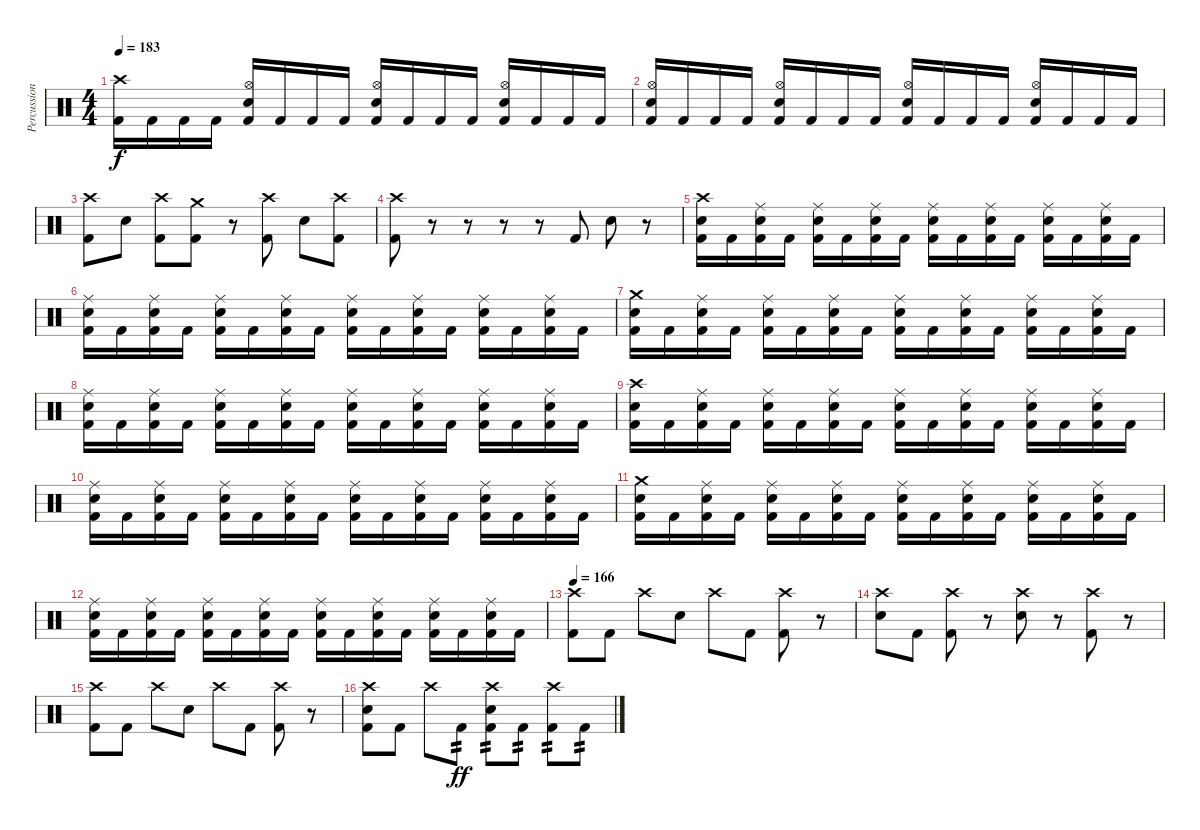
\track ("Percussion" "Percussion") {instrument percussion}
\staff {score}
\articulation defaults
\ts (4 4)
\tempo 183
\clef neutral
\ks c
("Crash high (hit)" "Kick (hit) 2").16{dy f} "Kick (hit) 2".16 "Kick (hit) 2".16 "Kick (hit) 2".16 ("Hi-Hat (open)" "Snare (hit) 2" "Kick (hit) 2").16 "Kick (hit) 2".16 "Kick (hit) 2".16 "Kick (hit) 2".16 ("Hi-Hat (open)" "Snare (hit) 2" "Kick (hit) 2").16 "Kick (hit) 2".16 "Kick (hit) 2".16 "Kick (hit) 2".16 ("Hi-Hat (open)" "Snare (hit) 2" "Kick (hit) 2").16 "Kick (hit) 2".16 "Kick (hit) 2".16 "Kick (hit) 2".16 |
("Hi-Hat (open)" "Snare (hit) 2" "Kick (hit) 2").16 "Kick (hit) 2".16 "Kick (hit) 2".16 "Kick (hit) 2".16 ("Hi-Hat (open)" "Snare (hit) 2" "Kick (hit) 2").16 "Kick (hit) 2".16 "Kick (hit) 2".16 "Kick (hit) 2".16 ("Hi-Hat (open)" "Snare (hit) 2" "Kick (hit) 2").16 "Kick (hit) 2".16 "Kick (hit) 2".16 "Kick (hit) 2".16 ("Hi-Hat (open)" "Snare (hit) 2" "Kick (hit) 2").16 "Kick (hit) 2".16 "Kick (hit) 2".16 "Kick (hit) 2".16 |
("Crash high (hit)" "Kick (hit) 2").8 "Snare (hit) 2".8 ("Crash high (hit)" "Kick (hit) 2").8 ("Crash medium (hit)" "Kick (hit) 2").8 r.8 ("Crash high (hit)" "Kick (hit) 2").8 "Snare (hit) 2".8 ("Crash high (hit)" "Kick (hit) 2").8 |
("Crash high (hit)" "Kick (hit) 2").8 r.8 r.8 r.8 r.8 "Kick (hit) 2".8 "Snare (hit) 2".8 r.8 |
("Crash high (hit)" "Snare (hit) 2" "Kick (hit) 2").16 "Kick (hit) 2".16 ("Ride (middle)" "Snare (hit) 2" "Kick (hit) 2").16 "Kick (hit) 2".16 ("Ride (middle)" "Snare (hit) 2" "Kick (hit) 2").16 "Kick (hit) 2".16 ("Ride (middle)" "Snare (hit) 2" "Kick (hit) 2").16 "Kick (hit) 2".16 ("Ride (middle)" "Snare (hit) 2" "Kick (hit) 2").16 "Kick (hit) 2".16 ("Ride (middle)" "Snare (hit) 2" "Kick (hit) 2").16 "Kick (hit) 2".16 ("Ride (middle)" "Snare (hit) 2" "Kick (hit) 2").16 "Kick (hit) 2".16 ("Ride (middle)" "Snare (hit) 2" "Kick (hit) 2").16 "Kick (hit) 2".16 |
("Ride (middle)" "Snare (hit) 2" "Kick (hit) 2").16 "Kick (hit) 2".16 ("Ride (middle)" "Snare (hit) 2" "Kick (hit) 2").16 "Kick (hit) 2".16 ("Ride (middle)" "Snare (hit) 2" "Kick (hit) 2").16 "Kick (hit) 2".16 ("Ride (middle)" "Snare (hit) 2" "Kick (hit) 2").16 "Kick (hit) 2".16 ("Ride (middle)" "Snare (hit) 2" "Kick (hit) 2").16 "Kick (hit) 2".16 ("Ride (middle)" "Snare (hit) 2" "Kick (hit) 2").16 "Kick (hit) 2".16 ("Ride (middle)" "Snare (hit) 2" "Kick (hit) 2").16 "Kick (hit) 2".16 ("Ride (middle)" "Snare (hit) 2" "Kick (hit) 2").16 "Kick (hit) 2".16 |
("Crash medium (hit)" "Snare (hit) 2" "Kick (hit) 2").16 "Kick (hit) 2".16 ("Ride (middle)" "Snare (hit) 2" "Kick (hit) 2").16 "Kick (hit) 2".16 ("Ride (middle)" "Snare (hit) 2" "Kick (hit) 2").16 "Kick (hit) 2".16 ("Ride (middle)" "Snare (hit) 2" "Kick (hit) 2").16 "Kick (hit) 2".16 ("Ride (middle)" "Snare (hit) 2" "Kick (hit) 2").16 "Kick (hit) 2".16 ("Ride (middle)" "Snare (hit) 2" "Kick (hit) 2").16 "Kick (hit) 2".16 ("Ride (middle)" "Snare (hit) 2" "Kick (hit) 2").16 "Kick (hit) 2".16 ("Ride (middle)" "Snare (hit) 2" "Kick (hit) 2").16 "Kick (hit) 2".16 |
("Ride (middle)" "Snare (hit) 2" "Kick (hit) 2").16 "Kick (hit) 2".16 ("Ride (middle)" "Snare (hit) 2" "Kick (hit) 2").16 "Kick (hit) 2".16 ("Ride (middle)" "Snare (hit) 2" "Kick (hit) 2").16 "Kick (hit) 2".16 ("Ride (middle)" "Snare (hit) 2" "Kick (hit) 2").16 "Kick (hit) 2".16 ("Ride (middle)" "Snare (hit) 2" "Kick (hit) 2").16 "Kick (hit) 2".16 ("Ride (middle)" "Snare (hit) 2" "Kick (hit) 2").16 "Kick (hit) 2".16 ("Ride (middle)" "Snare (hit) 2" "Kick (hit) 2").16 "Kick (hit) 2".16 ("Ride (middle)" "Snare (hit) 2" "Kick (hit) 2").16 "Kick (hit) 2".16 |
("Crash high (hit)" "Snare (hit) 2" "Kick (hit) 2").16 "Kick (hit) 2".16 ("Ride (middle)" "Snare (hit) 2" "Kick (hit) 2").16 "Kick (hit) 2".16 ("Ride (middle)" "Snare (hit) 2" "Kick (hit) 2").16 "Kick (hit) 2".16 ("Ride (middle)" "Snare (hit) 2" "Kick (hit) 2").16 "Kick (hit) 2".16 ("Ride (middle)" "Snare (hit) 2" "Kick (hit) 2").16 "Kick (hit) 2".16 ("Ride (middle)" "Snare (hit) 2" "Kick (hit) 2").16 "Kick (hit) 2".16 ("Ride (middle)" "Snare (hit) 2" "Kick (hit) 2").16 "Kick (hit) 2".16 ("Ride (middle)" "Snare (hit) 2" "Kick (hit) 2").16 "Kick (hit) 2".16 |
("Ride (middle)" "Snare (hit) 2" "Kick (hit) 2").16 "Kick (hit) 2".16 ("Ride (middle)" "Snare (hit) 2" "Kick (hit) 2").16 "Kick (hit) 2".16 ("Ride (middle)" "Snare (hit) 2" "Kick (hit) 2").16 "Kick (hit) 2".16 ("Ride (middle)" "Snare (hit) 2" "Kick (hit) 2").16 "Kick (hit) 2".16 ("Ride (middle)" "Snare (hit) 2" "Kick (hit) 2").16 "Kick (hit) 2".16 ("Ride (middle)" "Snare (hit) 2" "Kick (hit) 2").16 "Kick (hit) 2".16 ("Ride (middle)" "Snare (hit) 2" "Kick (hit) 2").16 "Kick (hit) 2".16 ("Ride (middle)" "Snare (hit) 2" "Kick (hit) 2").16 "Kick (hit) 2".16 |
("Crash medium (hit)" "Snare (hit) 2" "Kick (hit) 2").16 "Kick (hit) 2".16 ("Ride (middle)" "Snare (hit) 2" "Kick (hit) 2").16 "Kick (hit) 2".16 ("Ride (middle)" "Snare (hit) 2" "Kick (hit) 2").16 "Kick (hit) 2".16 ("Ride (middle)" "Snare (hit) 2" "Kick (hit) 2").16 "Kick (hit) 2".16 ("Ride (middle)" "Snare (hit) 2" "Kick (hit) 2").16 "Kick (hit) 2".16 ("Ride (middle)" "Snare (hit) 2" "Kick (hit) 2").16 "Kick (hit) 2".16 ("Ride (middle)" "Snare (hit) 2" "Kick (hit) 2").16 "Kick (hit) 2".16 ("Ride (middle)" "Snare (hit) 2" "Kick (hit) 2").16 "Kick (hit) 2".16 |
("Ride (middle)" "Snare (hit) 2" "Kick (hit) 2").16 "Kick (hit) 2".16 ("Ride (middle)" "Snare (hit) 2" "Kick (hit) 2").16 "Kick (hit) 2".16 ("Ride (middle)" "Snare (hit) 2" "Kick (hit) 2").16 "Kick (hit) 2".16 ("Ride (middle)" "Snare (hit) 2" "Kick (hit) 2").16 "Kick (hit) 2".16 ("Ride (middle)" "Snare (hit) 2" "Kick (hit) 2").16 "Kick (hit) 2".16 ("Ride (middle)" "Snare (hit) 2" "Kick (hit) 2").16 "Kick (hit) 2".16 ("Ride (middle)" "Snare (hit) 2" "Kick (hit) 2").16 "Kick (hit) 2".16 ("Ride (middle)" "Snare (hit) 2" "Kick (hit) 2").16 "Kick (hit) 2".16 |
\tempo 166
("Crash high (hit)" "Kick (hit) 2").8 "Kick (hit) 2".8 "Crash high (hit)".8 "Snare (hit) 2".8 "Crash high (hit)".8 "Kick (hit) 2".8 ("Crash high (hit)" "Kick (hit) 2").8 r.8 |
("Crash high (hit)" "Snare (hit) 2").8 "Kick (hit) 2".8 ("Crash high (hit)" "Kick (hit) 2").8 r.8 ("Crash high (hit)" "Snare (hit) 2").8 r.8 ("Crash high (hit)" "Kick (hit) 2").8 r.8 |
("Crash high (hit)" "Kick (hit) 2").8 "Kick (hit) 2".8 "Crash high (hit)".8 "Snare (hit) 2".8 "Crash high (hit)".8 "Kick (hit) 2".8 ("Crash high (hit)" "Kick (hit) 2").8 r.8 |
("Crash high (hit)" "Snare (hit) 2" "Kick (hit) 2").8 "Kick (hit) 2".8 "Crash high (hit)".8 "Kick (hit) 2".8{tp 2 dy ff} ("Crash high (hit)" "Snare (hit) 2" "Kick (hit) 2").8{tp 2} "Kick (hit) 2".8{tp 2} ("Crash high (hit)" "Kick (hit) 2").8{tp 2} "Kick (hit) 2".8{tp 2}
